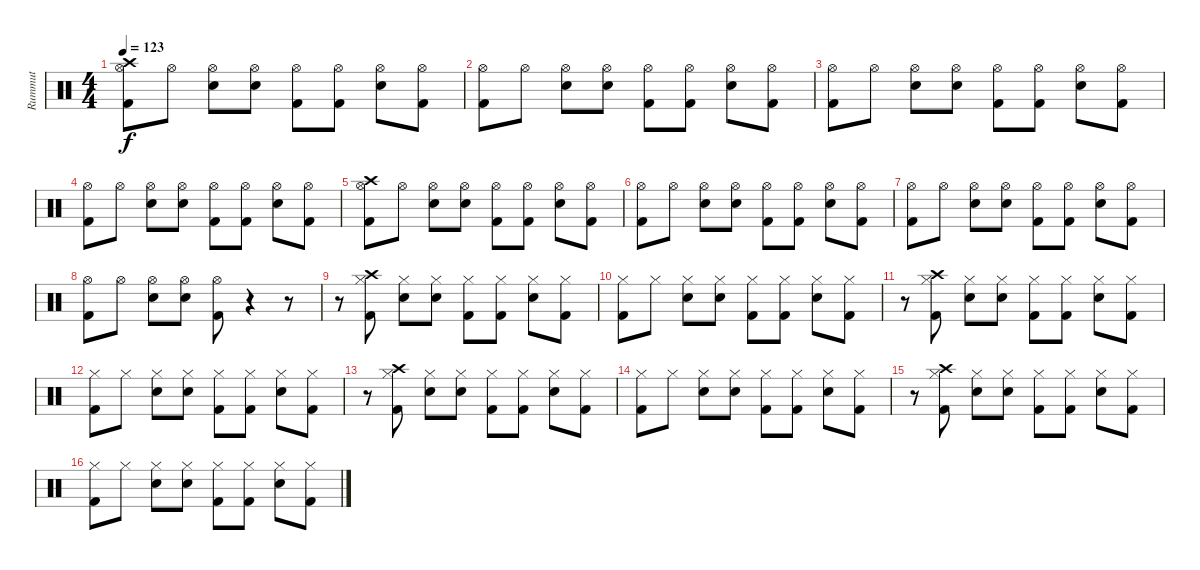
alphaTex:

\track ("Rummut" "Rummut") {instrument percussion}
\staff {score}
\articulation defaults
\ts (4 4)
\tempo 123
\clef neutral
\ks c
("Crash high (hit)" "Hi-Hat (open)" "Kick (hit) 2").8{dy f} "Hi-Hat (open)".8 ("Hi-Hat (open)" "Electric Snare (hit)").8 ("Hi-Hat (open)" "Electric Snare (hit)").8 ("Hi-Hat (open)" "Kick (hit) 2").8 ("Hi-Hat (open)" "Kick (hit) 2").8 ("Hi-Hat (open)" "Electric Snare (hit)").8 ("Hi-Hat (open)" "Kick (hit) 2").8 |
("Hi-Hat (open)" "Kick (hit) 2").8 "Hi-Hat (open)".8 ("Hi-Hat (open)" "Electric Snare (hit)").8 ("Hi-Hat (open)" "Electric Snare (hit)").8 ("Hi-Hat (open)" "Kick (hit) 2").8 ("Hi-Hat (open)" "Kick (hit) 2").8 ("Hi-Hat (open)" "Electric Snare (hit)").8 ("Hi-Hat (open)" "Kick (hit) 2").8 |
("Hi-Hat (open)" "Kick (hit) 2").8 "Hi-Hat (open)".8 ("Hi-Hat (open)" "Electric Snare (hit)").8 ("Hi-Hat (open)" "Electric Snare (hit)").8 ("Hi-Hat (open)" "Kick (hit) 2").8 ("Hi-Hat (open)" "Kick (hit) 2").8 ("Hi-Hat (open)" "Electric Snare (hit)").8 ("Hi-Hat (open)" "Kick (hit) 2").8 |
("Hi-Hat (open)" "Kick (hit) 2").8 "Hi-Hat (open)".8 ("Hi-Hat (open)" "Electric Snare (hit)").8 ("Hi-Hat (open)" "Electric Snare (hit)").8 ("Hi-Hat (open)" "Kick (hit) 2").8 ("Hi-Hat (open)" "Kick (hit) 2").8 ("Hi-Hat (open)" "Electric Snare (hit)").8 ("Hi-Hat (open)" "Kick (hit) 2").8 |
("Crash high (hit)" "Hi-Hat (open)" "Kick (hit) 2").8 "Hi-Hat (open)".8 ("Hi-Hat (open)" "Electric Snare (hit)").8 ("Hi-Hat (open)" "Electric Snare (hit)").8 ("Hi-Hat (open)" "Kick (hit) 2").8 ("Hi-Hat (open)" "Kick (hit) 2").8 ("Hi-Hat (open)" "Electric Snare (hit)").8 ("Hi-Hat (open)" "Kick (hit) 2").8 |
("Hi-Hat (open)" "Kick (hit) 2").8 "Hi-Hat (open)".8 ("Hi-Hat (open)" "Electric Snare (hit)").8 ("Hi-Hat (open)" "Electric Snare (hit)").8 ("Hi-Hat (open)" "Kick (hit) 2").8 ("Hi-Hat (open)" "Kick (hit) 2").8 ("Hi-Hat (open)" "Electric Snare (hit)").8 ("Hi-Hat (open)" "Kick (hit) 2").8 |
("Hi-Hat (open)" "Kick (hit) 2").8 "Hi-Hat (open)".8 ("Hi-Hat (open)" "Electric Snare (hit)").8 ("Hi-Hat (open)" "Electric Snare (hit)").8 ("Hi-Hat (open)" "Kick (hit) 2").8 ("Hi-Hat (open)" "Kick (hit) 2").8 ("Hi-Hat (open)" "Electric Snare (hit)").8 ("Hi-Hat (open)" "Kick (hit) 2").8 |
("Hi-Hat (open)" "Kick (hit) 2").8 "Hi-Hat (open)".8 ("Hi-Hat (open)" "Electric Snare (hit)").8 ("Hi-Hat (open)" "Electric Snare (hit)").8 ("Hi-Hat (open)" "Kick (hit) 2").8 r.4 r.8 |
r.8 ("Crash high (hit)" "Hi-Hat (closed)" "Kick (hit) 2").8 ("Hi-Hat (closed)" "Electric Snare (hit)").8 ("Hi-Hat (closed)" "Electric Snare (hit)").8 ("Hi-Hat (closed)" "Kick (hit) 2").8 ("Hi-Hat (closed)" "Kick (hit) 2").8 ("Hi-Hat (closed)" "Electric Snare (hit)").8 ("Hi-Hat (closed)" "Kick (hit) 2").8 |
("Hi-Hat (closed)" "Kick (hit) 2").8 "Hi-Hat (closed)".8 ("Hi-Hat (closed)" "Electric Snare (hit)").8 ("Hi-Hat (closed)" "Electric Snare (hit)").8 ("Hi-Hat (closed)" "Kick (hit) 2").8 ("Hi-Hat (closed)" "Kick (hit) 2").8 ("Hi-Hat (closed)" "Electric Snare (hit)").8 ("Hi-Hat (closed)" "Kick (hit) 2").8 |
r.8 ("Crash high (hit)" "Hi-Hat (closed)" "Kick (hit) 2").8 ("Hi-Hat (closed)" "Electric Snare (hit)").8 ("Hi-Hat (closed)" "Electric Snare (hit)").8 ("Hi-Hat (closed)" "Kick (hit) 2").8 ("Hi-Hat (closed)" "Kick (hit) 2").8 ("Hi-Hat (closed)" "Electric Snare (hit)").8 ("Hi-Hat (closed)" "Kick (hit) 2").8 |
("Hi-Hat (closed)" "Kick (hit) 2").8 "Hi-Hat (closed)".8 ("Hi-Hat (closed)" "Electric Snare (hit)").8 ("Hi-Hat (closed)" "Electric Snare (hit)").8 ("Hi-Hat (closed)" "Kick (hit) 2").8 ("Hi-Hat (closed)" "Kick (hit) 2").8 ("Hi-Hat (closed)" "Electric Snare (hit)").8 ("Hi-Hat (closed)" "Kick (hit) 2").8 |
r.8 ("Crash high (hit)" "Hi-Hat (closed)" "Kick (hit) 2").8 ("Hi-Hat (closed)" "Electric Snare (hit)").8 ("Hi-Hat (closed)" "Electric Snare (hit)").8 ("Hi-Hat (closed)" "Kick (hit) 2").8 ("Hi-Hat (closed)" "Kick (hit) 2").8 ("Hi-Hat (closed)" "Electric Snare (hit)").8 ("Hi-Hat (closed)" "Kick (hit) 2").8 |
("Hi-Hat (closed)" "Kick (hit) 2").8 "Hi-Hat (closed)".8 ("Hi-Hat (closed)" "Electric Snare (hit)").8 ("Hi-Hat (closed)" "Electric Snare (hit)").8 ("Hi-Hat (closed)" "Kick (hit) 2").8 ("Hi-Hat (closed)" "Kick (hit) 2").8 ("Hi-Hat (closed)" "Electric Snare (hit)").8 ("Hi-Hat (closed)" "Kick (hit) 2").8 |
r.8 ("Crash high (hit)" "Hi-Hat (closed)" "Kick (hit) 2").8 ("Hi-Hat (closed)" "Electric Snare (hit)").8 ("Hi-Hat (closed)" "Electric Snare (hit)").8 ("Hi-Hat (closed)" "Kick (hit) 2").8 ("Hi-Hat (closed)" "Kick (hit) 2").8 ("Hi-Hat (closed)" "Electric Snare (hit)").8 ("Hi-Hat (closed)" "Kick (hit) 2").8 |
("Hi-Hat (closed)" "Kick (hit) 2").8 "Hi-Hat (closed)".8 ("Hi-Hat (closed)" "Electric Snare (hit)").8 ("Hi-Hat (closed)" "Electric Snare (hit)").8 ("Hi-Hat (closed)" "Kick (hit) 2").8 ("Hi-Hat (closed)" "Kick (hit) 2").8 ("Hi-Hat (closed)" "Electric Snare (hit)").8 ("Hi-Hat (closed)" "Kick (hit) 2").8
